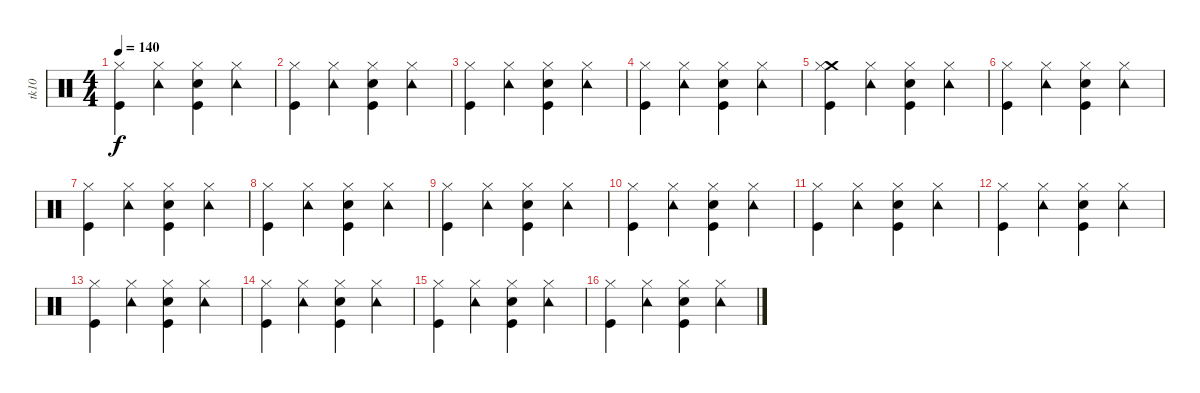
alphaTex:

\track ("tk10" "tk10") {instrument percussion}
\staff {score}
\articulation defaults
\ts (4 4)
\tempo 140
\clef neutral
\ks c
("Hi-Hat (closed)" "Kick (hit)").4{dy f} ("Tambourine (hit)" "Hi-Hat (closed)").4 ("Electric Snare (hit)" "Hi-Hat (closed)" "Kick (hit)").4 ("Hi-Hat (closed)" "Tambourine (hit)").4 |
("Hi-Hat (closed)" "Kick (hit)").4 ("Tambourine (hit)" "Hi-Hat (closed)").4 ("Electric Snare (hit)" "Hi-Hat (closed)" "Kick (hit)").4 ("Hi-Hat (closed)" "Tambourine (hit)").4 |
("Hi-Hat (closed)" "Kick (hit)").4 ("Tambourine (hit)" "Hi-Hat (closed)").4 ("Electric Snare (hit)" "Hi-Hat (closed)" "Kick (hit)").4 ("Hi-Hat (closed)" "Tambourine (hit)").4 |
("Hi-Hat (closed)" "Kick (hit)").4 ("Tambourine (hit)" "Hi-Hat (closed)").4 ("Electric Snare (hit)" "Hi-Hat (closed)" "Kick (hit)").4 ("Hi-Hat (closed)" "Tambourine (hit)").4 |
("Crash medium (hit)" "Hi-Hat (closed)" "Kick (hit)").4 ("Tambourine (hit)" "Hi-Hat (closed)").4 ("Electric Snare (hit)" "Hi-Hat (closed)" "Kick (hit)").4 ("Hi-Hat (closed)" "Tambourine (hit)").4 |
("Hi-Hat (closed)" "Kick (hit)").4 ("Tambourine (hit)" "Hi-Hat (closed)").4 ("Electric Snare (hit)" "Hi-Hat (closed)" "Kick (hit)").4 ("Hi-Hat (closed)" "Tambourine (hit)").4 |
("Hi-Hat (closed)" "Kick (hit)").4 ("Tambourine (hit)" "Hi-Hat (closed)").4 ("Electric Snare (hit)" "Hi-Hat (closed)" "Kick (hit)").4 ("Hi-Hat (closed)" "Tambourine (hit)").4 |
("Hi-Hat (closed)" "Kick (hit)").4 ("Tambourine (hit)" "Hi-Hat (closed)").4 ("Electric Snare (hit)" "Hi-Hat (closed)" "Kick (hit)").4 ("Hi-Hat (closed)" "Tambourine (hit)").4 |
("Hi-Hat (closed)" "Kick (hit)").4 ("Tambourine (hit)" "Hi-Hat (closed)").4 ("Electric Snare (hit)" "Hi-Hat (closed)" "Kick (hit)").4 ("Hi-Hat (closed)" "Tambourine (hit)").4 |
("Hi-Hat (closed)" "Kick (hit)").4 ("Tambourine (hit)" "Hi-Hat (closed)").4 ("Electric Snare (hit)" "Hi-Hat (closed)" "Kick (hit)").4 ("Hi-Hat (closed)" "Tambourine (hit)").4 |
("Hi-Hat (closed)" "Kick (hit)").4 ("Tambourine (hit)" "Hi-Hat (closed)").4 ("Electric Snare (hit)" "Hi-Hat (closed)" "Kick (hit)").4 ("Hi-Hat (closed)" "Tambourine (hit)").4 |
("Hi-Hat (closed)" "Kick (hit)").4 ("Tambourine (hit)" "Hi-Hat (closed)").4 ("Electric Snare (hit)" "Hi-Hat (closed)" "Kick (hit)").4 ("Hi-Hat (closed)" "Tambourine (hit)").4 |
("Hi-Hat (closed)" "Kick (hit)").4 ("Tambourine (hit)" "Hi-Hat (closed)").4 ("Electric Snare (hit)" "Hi-Hat (closed)" "Kick (hit)").4 ("Hi-Hat (closed)" "Tambourine (hit)").4 |
("Hi-Hat (closed)" "Kick (hit)").4 ("Tambourine (hit)" "Hi-Hat (closed)").4 ("Electric Snare (hit)" "Hi-Hat (closed)" "Kick (hit)").4 ("Hi-Hat (closed)" "Tambourine (hit)").4 |
("Hi-Hat (closed)" "Kick (hit)").4 ("Tambourine (hit)" "Hi-Hat (closed)").4 ("Electric Snare (hit)" "Hi-Hat (closed)" "Kick (hit)").4 ("Hi-Hat (closed)" "Tambourine (hit)").4 |
("Hi-Hat (closed)" "Kick (hit)").4 ("Tambourine (hit)" "Hi-Hat (closed)").4 ("Electric Snare (hit)" "Hi-Hat (closed)" "Kick (hit)").4 ("Hi-Hat (closed)" "Tambourine (hit)").4
